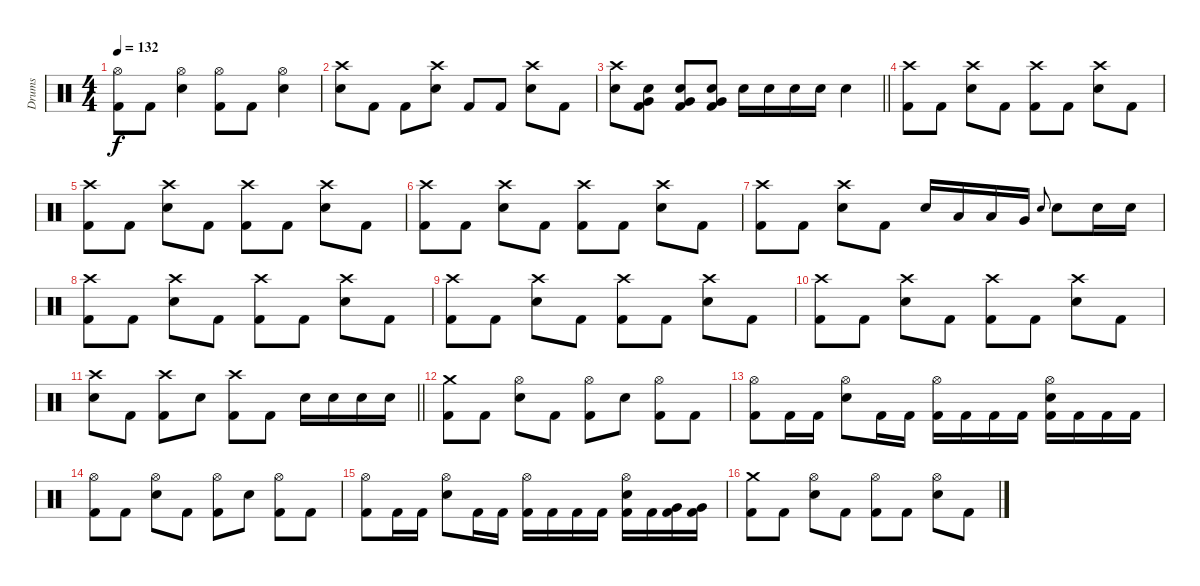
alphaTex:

\track ("Drums" "Drums") {instrument percussion}
\staff {score}
\articulation defaults
\ts (4 4)
\tempo 132
\clef neutral
\ks c
("Hi-Hat (open)" "Kick (hit) 2").8{dy f} "Kick (hit) 2".8 ("Hi-Hat (open)" "Electric Snare (hit)").4 ("Hi-Hat (open)" "Kick (hit) 2").8 "Kick (hit) 2".8 ("Hi-Hat (open)" "Electric Snare (hit)").4 |
("Crash high (hit)" "Electric Snare (hit)").8 "Kick (hit) 2".8 "Kick (hit) 2".8 ("Crash high (hit)" "Electric Snare (hit)").8 "Kick (hit) 2".8 "Kick (hit) 2".8 ("Crash high (hit)" "Electric Snare (hit)").8 "Kick (hit) 2".8 |
\barLineRight lightlight
("Crash high (hit)" "Electric Snare (hit)").8 ("Very Low Tom (hit)" "Electric Snare (hit)" "Kick (hit) 2").8 ("Very Low Tom (hit)" "Electric Snare (hit)" "Kick (hit) 2").8 ("Very Low Tom (hit)" "Electric Snare (hit)" "Kick (hit) 2").8 "Electric Snare (hit)".16 "Electric Snare (hit)".16 "Electric Snare (hit)".16 "Electric Snare (hit)".16 "Electric Snare (hit)".4 |
\section ("" "")
("Crash high (hit)" "Kick (hit) 2").8 "Kick (hit) 2".8 ("Crash high (hit)" "Electric Snare (hit)").8 "Kick (hit) 2".8 ("Crash high (hit)" "Kick (hit) 2").8 "Kick (hit) 2".8 ("Crash high (hit)" "Electric Snare (hit)").8 "Kick (hit) 2".8 |
("Crash high (hit)" "Kick (hit) 2").8 "Kick (hit) 2".8 ("Crash high (hit)" "Electric Snare (hit)").8 "Kick (hit) 2".8 ("Crash high (hit)" "Kick (hit) 2").8 "Kick (hit) 2".8 ("Crash high (hit)" "Electric Snare (hit)").8 "Kick (hit) 2".8 |
("Crash high (hit)" "Kick (hit) 2").8 "Kick (hit) 2".8 ("Crash high (hit)" "Electric Snare (hit)").8 "Kick (hit) 2".8 ("Crash high (hit)" "Kick (hit) 2").8 "Kick (hit) 2".8 ("Crash high (hit)" "Electric Snare (hit)").8 "Kick (hit) 2".8 |
("Crash high (hit)" "Kick (hit) 2").8 "Kick (hit) 2".8 ("Crash high (hit)" "Electric Snare (hit)").8 "Kick (hit) 2".8 "Electric Snare (hit)".16 "Low Tom (hit)".16 "Low Tom (hit)".16 "Very Low Tom (hit)".16 "Electric Snare (hit)".8{gr onbeat} "Electric Snare (hit)".8 "Electric Snare (hit)".16 "Electric Snare (hit)".16 |
("Crash high (hit)" "Kick (hit) 2").8 "Kick (hit) 2".8 ("Crash high (hit)" "Electric Snare (hit)").8 "Kick (hit) 2".8 ("Crash high (hit)" "Kick (hit) 2").8 "Kick (hit) 2".8 ("Crash high (hit)" "Electric Snare (hit)").8 "Kick (hit) 2".8 |
("Crash high (hit)" "Kick (hit) 2").8 "Kick (hit) 2".8 ("Crash high (hit)" "Electric Snare (hit)").8 "Kick (hit) 2".8 ("Crash high (hit)" "Kick (hit) 2").8 "Kick (hit) 2".8 ("Crash high (hit)" "Electric Snare (hit)").8 "Kick (hit) 2".8 |
("Crash high (hit)" "Kick (hit) 2").8 "Kick (hit) 2".8 ("Crash high (hit)" "Electric Snare (hit)").8 "Kick (hit) 2".8 ("Crash high (hit)" "Kick (hit) 2").8 "Kick (hit) 2".8 ("Crash high (hit)" "Electric Snare (hit)").8 "Kick (hit) 2".8 |
\barLineRight lightlight
("Crash high (hit)" "Electric Snare (hit)").8 "Kick (hit) 2".8 ("Crash high (hit)" "Kick (hit) 2").8 "Electric Snare (hit)".8 ("Crash high (hit)" "Kick (hit) 2").8 "Kick (hit) 2".8 "Electric Snare (hit)".16 "Electric Snare (hit)".16 "Electric Snare (hit)".16 "Electric Snare (hit)".16 |
\section ("" "")
("Crash medium (hit)" "Kick (hit) 2").8 "Kick (hit) 2".8 ("Hi-Hat (open)" "Electric Snare (hit)").8 "Kick (hit) 2".8 ("Hi-Hat (open)" "Kick (hit) 2").8 "Electric Snare (hit)".8 ("Hi-Hat (open)" "Kick (hit) 2").8 "Kick (hit) 2".8 |
("Hi-Hat (open)" "Kick (hit) 2").8 "Kick (hit) 2".16 "Kick (hit) 2".16 ("Hi-Hat (open)" "Electric Snare (hit)").8 "Kick (hit) 2".16 "Kick (hit) 2".16 ("Hi-Hat (open)" "Kick (hit) 2").16 "Kick (hit) 2".16 "Kick (hit) 2".16 "Kick (hit) 2".16 ("Hi-Hat (open)" "Electric Snare (hit)" "Kick (hit) 2").16 "Kick (hit) 2".16 "Kick (hit) 2".16 "Kick (hit) 2".16 |
("Hi-Hat (open)" "Kick (hit) 2").8 "Kick (hit) 2".8 ("Hi-Hat (open)" "Electric Snare (hit)").8 "Kick (hit) 2".8 ("Hi-Hat (open)" "Kick (hit) 2").8 "Electric Snare (hit)".8 ("Hi-Hat (open)" "Kick (hit) 2").8 "Kick (hit) 2".8 |
("Hi-Hat (open)" "Kick (hit) 2").8 "Kick (hit) 2".16 "Kick (hit) 2".16 ("Hi-Hat (open)" "Electric Snare (hit)").8 "Kick (hit) 2".16 "Kick (hit) 2".16 ("Hi-Hat (open)" "Kick (hit) 2").16 "Kick (hit) 2".16 "Kick (hit) 2".16 "Kick (hit) 2".16 ("Hi-Hat (open)" "Electric Snare (hit)" "Kick (hit) 2").16 "Kick (hit) 2".16 ("Very Low Tom (hit)" "Kick (hit) 2").16 ("Very Low Tom (hit)" "Kick (hit) 2").16 |
("Crash medium (hit)" "Kick (hit) 2").8 "Kick (hit) 2".8 ("Hi-Hat (open)" "Electric Snare (hit)").8 "Kick (hit) 2".8 ("Hi-Hat (open)" "Kick (hit) 2").8 "Kick (hit) 2".8 ("Hi-Hat (open)" "Electric Snare (hit)").8 "Kick (hit) 2".8
